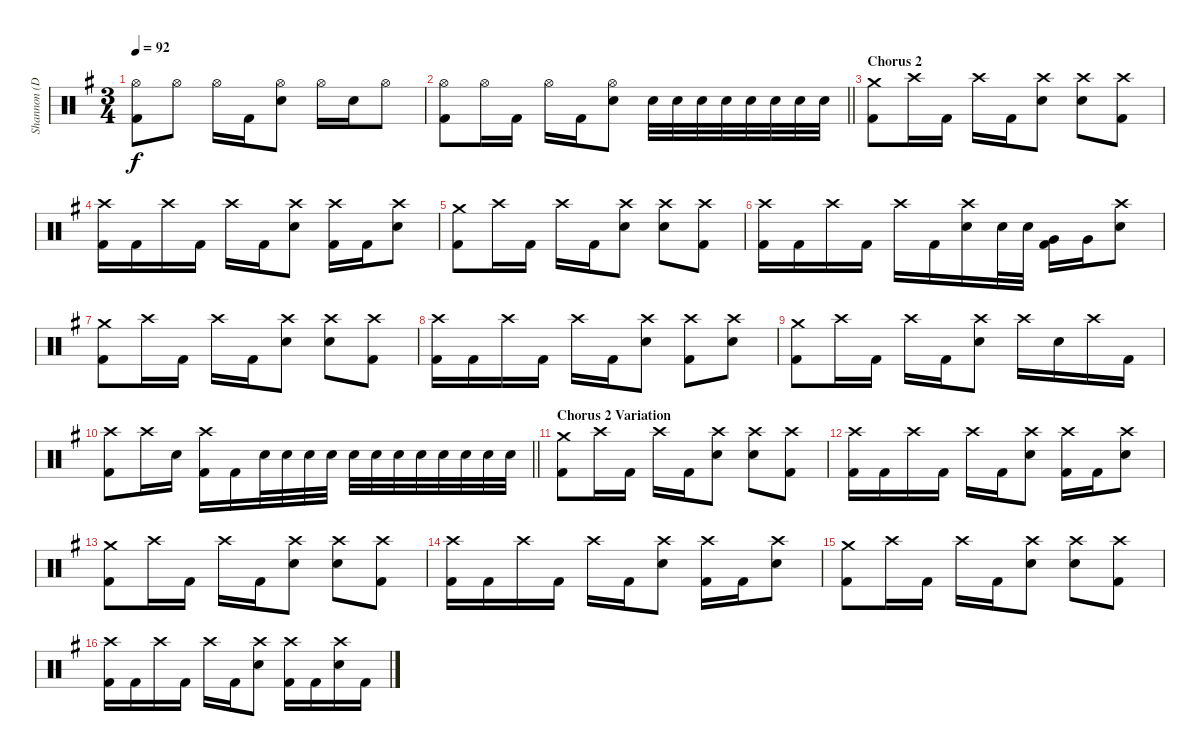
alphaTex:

\track ("Shannon (Drums)" "Shannon (D") {instrument percussion}
\staff {score}
\articulation defaults
\ts (3 4)
\tempo 92
\clef neutral
\ks g
("Hi-Hat (open)" "Kick (hit) 2").8{dy f} "Hi-Hat (open)".8 "Hi-Hat (open)".16 "Kick (hit) 2".16 ("Hi-Hat (open)" "Electric Snare (hit)").8 "Hi-Hat (open)".16 "Electric Snare (hit)".16 "Hi-Hat (open)".8 |
\barLineRight lightlight
("Hi-Hat (open)" "Kick (hit) 2").8 "Hi-Hat (open)".16 "Kick (hit) 2".16 "Hi-Hat (open)".16 "Kick (hit) 2".16 ("Hi-Hat (open)" "Electric Snare (hit)").8 "Electric Snare (hit)".32 "Electric Snare (hit)".32 "Electric Snare (hit)".32 "Electric Snare (hit)".32 "Electric Snare (hit)".32 "Electric Snare (hit)".32 "Electric Snare (hit)".32 "Electric Snare (hit)".32 |
\section ("" "Chorus 2")
("Crash medium (hit)" "Kick (hit) 2").8 "Crash high (hit)".16 "Kick (hit) 2".16 "Crash high (hit)".16 "Kick (hit) 2".16 ("Crash high (hit)" "Electric Snare (hit)").8 ("Crash high (hit)" "Electric Snare (hit)").8 ("Crash high (hit)" "Kick (hit) 2").8 |
("Crash high (hit)" "Kick (hit) 2").16 "Kick (hit) 2".16 "Crash high (hit)".16 "Kick (hit) 2".16 "Crash high (hit)".16 "Kick (hit) 2".16 ("Crash high (hit)" "Electric Snare (hit)").8 ("Crash high (hit)" "Kick (hit) 2").16 "Kick (hit) 2".16 ("Crash high (hit)" "Electric Snare (hit)").8 |
("Crash medium (hit)" "Kick (hit) 2").8 "Crash high (hit)".16 "Kick (hit) 2".16 "Crash high (hit)".16 "Kick (hit) 2".16 ("Crash high (hit)" "Electric Snare (hit)").8 ("Crash high (hit)" "Electric Snare (hit)").8 ("Crash high (hit)" "Kick (hit) 2").8 |
("Crash high (hit)" "Kick (hit) 2").16 "Kick (hit) 2".16 "Crash high (hit)".16 "Kick (hit) 2".16 "Crash high (hit)".16 "Kick (hit) 2".16 ("Crash high (hit)" "Electric Snare (hit)").16 "Electric Snare (hit)".32 "Electric Snare (hit)".32 ("Very Low Tom (hit)" "Kick (hit) 2").16 "Very Low Tom (hit)".16 ("Crash high (hit)" "Electric Snare (hit)").8 |
("Crash medium (hit)" "Kick (hit) 2").8 "Crash high (hit)".16 "Kick (hit) 2".16 "Crash high (hit)".16 "Kick (hit) 2".16 ("Crash high (hit)" "Electric Snare (hit)").8 ("Crash high (hit)" "Electric Snare (hit)").8 ("Crash high (hit)" "Kick (hit) 2").8 |
("Crash high (hit)" "Kick (hit) 2").16 "Kick (hit) 2".16 "Crash high (hit)".16 "Kick (hit) 2".16 "Crash high (hit)".16 "Kick (hit) 2".16 ("Crash high (hit)" "Electric Snare (hit)").8 ("Crash high (hit)" "Kick (hit) 2").8 ("Crash high (hit)" "Electric Snare (hit)").8 |
("Crash medium (hit)" "Kick (hit) 2").8 "Crash high (hit)".16 "Kick (hit) 2".16 "Crash high (hit)".16 "Kick (hit) 2".16 ("Crash high (hit)" "Electric Snare (hit)").8 "Crash high (hit)".16 "Electric Snare (hit)".16 "Crash high (hit)".16 "Kick (hit) 2".16 |
\barLineRight lightlight
("Crash high (hit)" "Kick (hit) 2").8 "Crash high (hit)".16 "Electric Snare (hit)".16 ("Crash high (hit)" "Kick (hit) 2").16 "Kick (hit) 2".16 "Electric Snare (hit)".32 "Electric Snare (hit)".32 "Electric Snare (hit)".32 "Electric Snare (hit)".32 "Electric Snare (hit)".32 "Electric Snare (hit)".32 "Electric Snare (hit)".32 "Electric Snare (hit)".32 "Electric Snare (hit)".32 "Electric Snare (hit)".32 "Electric Snare (hit)".32 "Electric Snare (hit)".32 |
\section ("" "Chorus 2 Variation")
("Crash medium (hit)" "Kick (hit) 2").8 "Crash high (hit)".16 "Kick (hit) 2".16 "Crash high (hit)".16 "Kick (hit) 2".16 ("Crash high (hit)" "Electric Snare (hit)").8 ("Crash high (hit)" "Electric Snare (hit)").8 ("Crash high (hit)" "Kick (hit) 2").8 |
("Crash high (hit)" "Kick (hit) 2").16 "Kick (hit) 2".16 "Crash high (hit)".16 "Kick (hit) 2".16 "Crash high (hit)".16 "Kick (hit) 2".16 ("Crash high (hit)" "Electric Snare (hit)").8 ("Crash high (hit)" "Kick (hit) 2").16 "Kick (hit) 2".16 ("Crash high (hit)" "Electric Snare (hit)").8 |
("Crash medium (hit)" "Kick (hit) 2").8 "Crash high (hit)".16 "Kick (hit) 2".16 "Crash high (hit)".16 "Kick (hit) 2".16 ("Crash high (hit)" "Electric Snare (hit)").8 ("Crash high (hit)" "Electric Snare (hit)").8 ("Crash high (hit)" "Kick (hit) 2").8 |
("Crash high (hit)" "Kick (hit) 2").16 "Kick (hit) 2".16 "Crash high (hit)".16 "Kick (hit) 2".16 "Crash high (hit)".16 "Kick (hit) 2".16 ("Crash high (hit)" "Electric Snare (hit)").8 ("Crash high (hit)" "Kick (hit) 2").16 "Kick (hit) 2".16 ("Crash high (hit)" "Electric Snare (hit)").8 |
("Crash medium (hit)" "Kick (hit) 2").8 "Crash high (hit)".16 "Kick (hit) 2".16 "Crash high (hit)".16 "Kick (hit) 2".16 ("Crash high (hit)" "Electric Snare (hit)").8 ("Crash high (hit)" "Electric Snare (hit)").8 ("Crash high (hit)" "Kick (hit) 2").8 |
("Crash high (hit)" "Kick (hit) 2").16 "Kick (hit) 2".16 "Crash high (hit)".16 "Kick (hit) 2".16 "Crash high (hit)".16 "Kick (hit) 2".16 ("Crash high (hit)" "Electric Snare (hit)").8 ("Crash high (hit)" "Kick (hit) 2").16 "Kick (hit) 2".16 ("Crash high (hit)" "Electric Snare (hit)").16 "Kick (hit) 2".16
